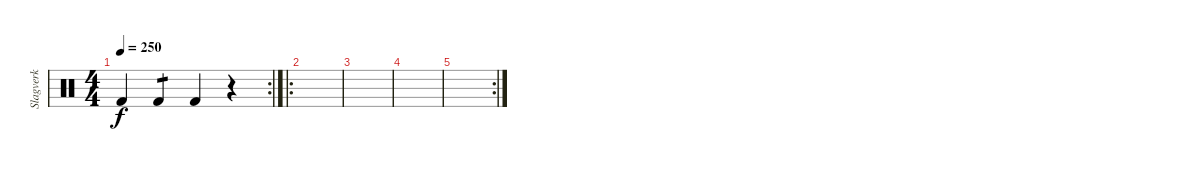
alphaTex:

\track ("Slagverk" "Slagverk") {instrument percussion}
\staff {score}
\articulation defaults
\rc 2
\ts (4 4)
\tempo 250
\clef neutral
\ks c "Kick (hit) 2".4{dy f} "Kick (hit) 2".4{tp 1} "Kick (hit) 2".4
r.4 |
\ro
|
|
|
\rc 2
